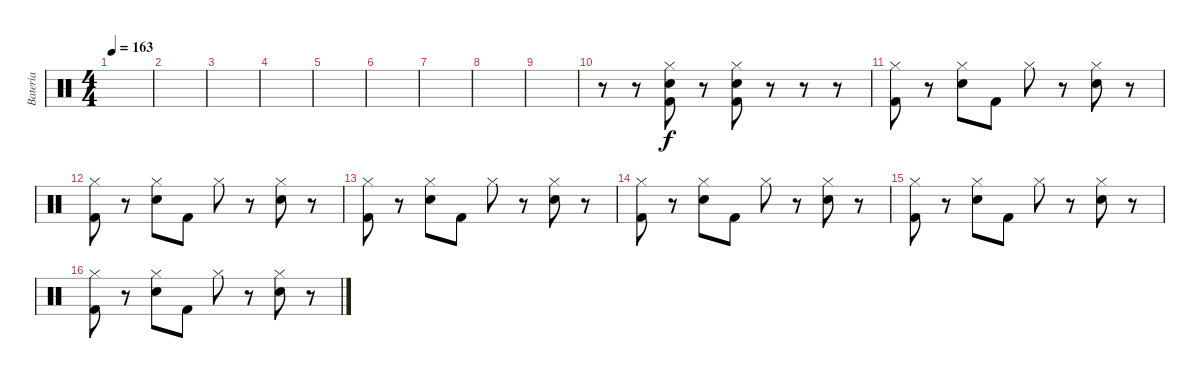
\track ("Batería" "Batería") {instrument percussion}
\staff {score}
\articulation defaults
\ts (4 4)
\tempo 163
\clef neutral
\ks c
|
|
|
|
|
|
|
|
|
r.8 r.8 ("Hi-Hat (closed)" "Snare (hit) 2" "Kick (hit) 2").8 r.8 ("Hi-Hat (closed)" "Snare (hit) 2" "Kick (hit) 2").8 r.8 r.8 r.8 |
("Hi-Hat (closed)" "Kick (hit) 2").8 r.8 ("Hi-Hat (closed)" "Snare (hit) 2").8 "Kick (hit) 2".8 "Hi-Hat (closed)".8 r.8 ("Hi-Hat (closed)" "Snare (hit) 2").8 r.8 |
("Hi-Hat (closed)" "Kick (hit) 2").8 r.8 ("Hi-Hat (closed)" "Snare (hit) 2").8 "Kick (hit) 2".8 "Hi-Hat (closed)".8 r.8 ("Hi-Hat (closed)" "Snare (hit) 2").8 r.8 |
("Hi-Hat (closed)" "Kick (hit) 2").8 r.8 ("Hi-Hat (closed)" "Snare (hit) 2").8 "Kick (hit) 2".8 "Hi-Hat (closed)".8 r.8 ("Hi-Hat (closed)" "Snare (hit) 2").8 r.8 |
("Hi-Hat (closed)" "Kick (hit) 2").8 r.8 ("Hi-Hat (closed)" "Snare (hit) 2").8 "Kick (hit) 2".8 "Hi-Hat (closed)".8 r.8 ("Hi-Hat (closed)" "Snare (hit) 2").8 r.8 |
("Hi-Hat (closed)" "Kick (hit) 2").8 r.8 ("Hi-Hat (closed)" "Snare (hit) 2").8 "Kick (hit) 2".8 "Hi-Hat (closed)".8 r.8 ("Hi-Hat (closed)" "Snare (hit) 2").8 r.8 |
("Hi-Hat (closed)" "Kick (hit) 2").8 r.8 ("Hi-Hat (closed)" "Snare (hit) 2").8 "Kick (hit) 2".8 "Hi-Hat (closed)".8 r.8 ("Hi-Hat (closed)" "Snare (hit) 2").8 r.8
